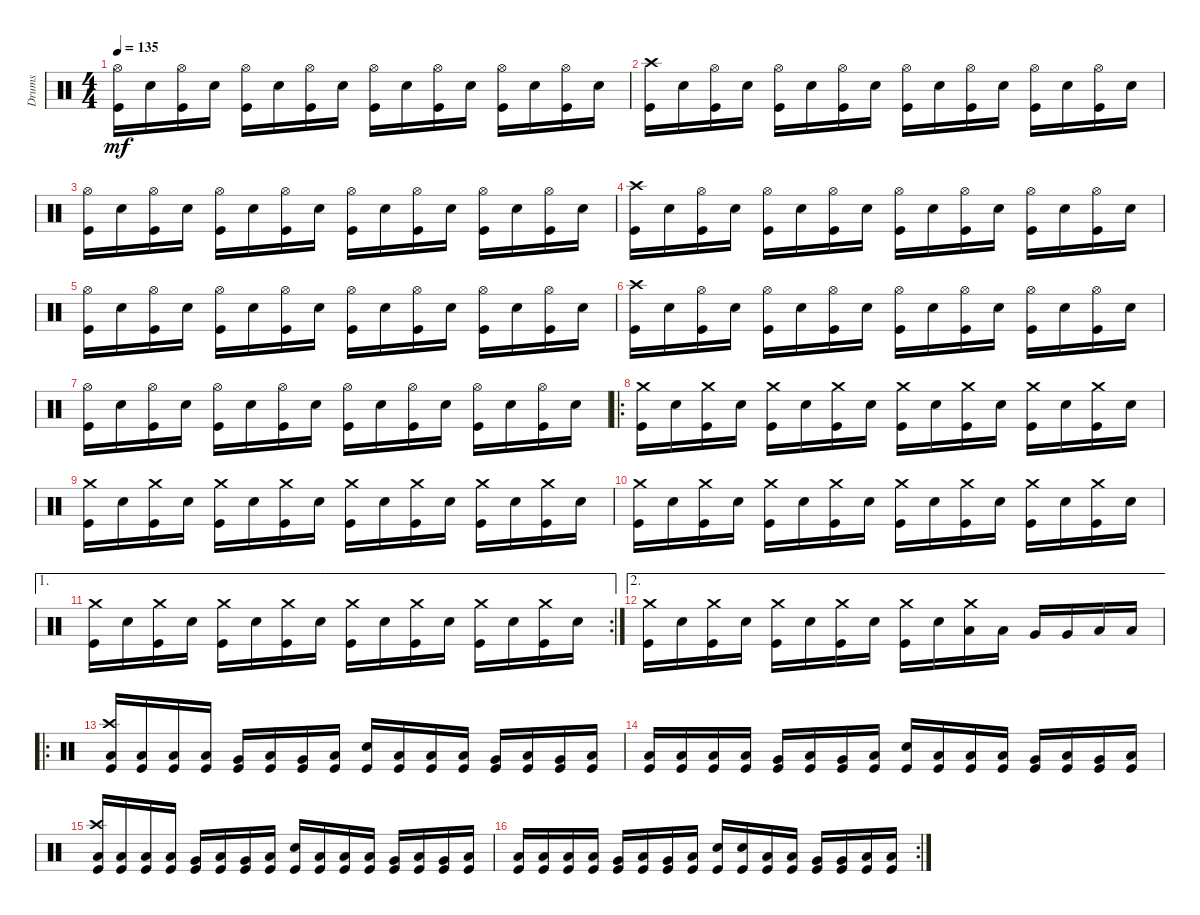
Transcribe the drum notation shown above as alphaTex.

\track ("Drums" "Drums") {instrument percussion}
\staff {score}
\articulation defaults
\ts (4 4)
\tempo 135
\clef neutral
\ks c
("Hi-Hat (open)" "Kick (hit)").16{dy mf} "Snare (hit) 2".16 ("Hi-Hat (open)" "Kick (hit)").16 "Snare (hit) 2".16 ("Hi-Hat (open)" "Kick (hit)").16 "Snare (hit) 2".16 ("Hi-Hat (open)" "Kick (hit)").16 "Snare (hit) 2".16 ("Hi-Hat (open)" "Kick (hit)").16 "Snare (hit) 2".16 ("Hi-Hat (open)" "Kick (hit)").16 "Snare (hit) 2".16 ("Hi-Hat (open)" "Kick (hit)").16 "Snare (hit) 2".16 ("Hi-Hat (open)" "Kick (hit)").16 "Snare (hit) 2".16 |
("Crash high (hit)" "Kick (hit)").16 "Snare (hit) 2".16 ("Hi-Hat (open)" "Kick (hit)").16 "Snare (hit) 2".16 ("Hi-Hat (open)" "Kick (hit)").16 "Snare (hit) 2".16 ("Hi-Hat (open)" "Kick (hit)").16 "Snare (hit) 2".16 ("Hi-Hat (open)" "Kick (hit)").16 "Snare (hit) 2".16 ("Hi-Hat (open)" "Kick (hit)").16 "Snare (hit) 2".16 ("Hi-Hat (open)" "Kick (hit)").16 "Snare (hit) 2".16 ("Hi-Hat (open)" "Kick (hit)").16 "Snare (hit) 2".16 |
("Hi-Hat (open)" "Kick (hit)").16 "Snare (hit) 2".16 ("Hi-Hat (open)" "Kick (hit)").16 "Snare (hit) 2".16 ("Hi-Hat (open)" "Kick (hit)").16 "Snare (hit) 2".16 ("Hi-Hat (open)" "Kick (hit)").16 "Snare (hit) 2".16 ("Hi-Hat (open)" "Kick (hit)").16 "Snare (hit) 2".16 ("Hi-Hat (open)" "Kick (hit)").16 "Snare (hit) 2".16 ("Hi-Hat (open)" "Kick (hit)").16 "Snare (hit) 2".16 ("Hi-Hat (open)" "Kick (hit)").16 "Snare (hit) 2".16 |
("Crash high (hit)" "Kick (hit)").16 "Snare (hit) 2".16 ("Hi-Hat (open)" "Kick (hit)").16 "Snare (hit) 2".16 ("Hi-Hat (open)" "Kick (hit)").16 "Snare (hit) 2".16 ("Hi-Hat (open)" "Kick (hit)").16 "Snare (hit) 2".16 ("Hi-Hat (open)" "Kick (hit)").16 "Snare (hit) 2".16 ("Hi-Hat (open)" "Kick (hit)").16 "Snare (hit) 2".16 ("Hi-Hat (open)" "Kick (hit)").16 "Snare (hit) 2".16 ("Hi-Hat (open)" "Kick (hit)").16 "Snare (hit) 2".16 |
("Hi-Hat (open)" "Kick (hit)").16 "Snare (hit) 2".16 ("Hi-Hat (open)" "Kick (hit)").16 "Snare (hit) 2".16 ("Hi-Hat (open)" "Kick (hit)").16 "Snare (hit) 2".16 ("Hi-Hat (open)" "Kick (hit)").16 "Snare (hit) 2".16 ("Hi-Hat (open)" "Kick (hit)").16 "Snare (hit) 2".16 ("Hi-Hat (open)" "Kick (hit)").16 "Snare (hit) 2".16 ("Hi-Hat (open)" "Kick (hit)").16 "Snare (hit) 2".16 ("Hi-Hat (open)" "Kick (hit)").16 "Snare (hit) 2".16 |
("Crash high (hit)" "Kick (hit)").16 "Snare (hit) 2".16 ("Hi-Hat (open)" "Kick (hit)").16 "Snare (hit) 2".16 ("Hi-Hat (open)" "Kick (hit)").16 "Snare (hit) 2".16 ("Hi-Hat (open)" "Kick (hit)").16 "Snare (hit) 2".16 ("Hi-Hat (open)" "Kick (hit)").16 "Snare (hit) 2".16 ("Hi-Hat (open)" "Kick (hit)").16 "Snare (hit) 2".16 ("Hi-Hat (open)" "Kick (hit)").16 "Snare (hit) 2".16 ("Hi-Hat (open)" "Kick (hit)").16 "Snare (hit) 2".16 |
("Hi-Hat (open)" "Kick (hit)").16 "Snare (hit) 2".16 ("Hi-Hat (open)" "Kick (hit)").16 "Snare (hit) 2".16 ("Hi-Hat (open)" "Kick (hit)").16 "Snare (hit) 2".16 ("Hi-Hat (open)" "Kick (hit)").16 "Snare (hit) 2".16 ("Hi-Hat (open)" "Kick (hit)").16 "Snare (hit) 2".16 ("Hi-Hat (open)" "Kick (hit)").16 "Snare (hit) 2".16 ("Hi-Hat (open)" "Kick (hit)").16 "Snare (hit) 2".16 ("Hi-Hat (open)" "Kick (hit)").16 "Snare (hit) 2".16 |
\ro
("Crash medium (hit)" "Kick (hit)").16 "Snare (hit) 2".16 ("Crash medium (hit)" "Kick (hit)").16 "Snare (hit) 2".16 ("Crash medium (hit)" "Kick (hit)").16 "Snare (hit) 2".16 ("Crash medium (hit)" "Kick (hit)").16 "Snare (hit) 2".16 ("Crash medium (hit)" "Kick (hit)").16 "Snare (hit) 2".16 ("Crash medium (hit)" "Kick (hit)").16 "Snare (hit) 2".16 ("Crash medium (hit)" "Kick (hit)").16 "Snare (hit) 2".16 ("Crash medium (hit)" "Kick (hit)").16 "Snare (hit) 2".16 |
("Crash medium (hit)" "Kick (hit)").16 "Snare (hit) 2".16 ("Crash medium (hit)" "Kick (hit)").16 "Snare (hit) 2".16 ("Crash medium (hit)" "Kick (hit)").16 "Snare (hit) 2".16 ("Crash medium (hit)" "Kick (hit)").16 "Snare (hit) 2".16 ("Crash medium (hit)" "Kick (hit)").16 "Snare (hit) 2".16 ("Crash medium (hit)" "Kick (hit)").16 "Snare (hit) 2".16 ("Crash medium (hit)" "Kick (hit)").16 "Snare (hit) 2".16 ("Crash medium (hit)" "Kick (hit)").16 "Snare (hit) 2".16 |
("Crash medium (hit)" "Kick (hit)").16 "Snare (hit) 2".16 ("Crash medium (hit)" "Kick (hit)").16 "Snare (hit) 2".16 ("Crash medium (hit)" "Kick (hit)").16 "Snare (hit) 2".16 ("Crash medium (hit)" "Kick (hit)").16 "Snare (hit) 2".16 ("Crash medium (hit)" "Kick (hit)").16 "Snare (hit) 2".16 ("Crash medium (hit)" "Kick (hit)").16 "Snare (hit) 2".16 ("Crash medium (hit)" "Kick (hit)").16 "Snare (hit) 2".16 ("Crash medium (hit)" "Kick (hit)").16 "Snare (hit) 2".16 |
\ae 1
\rc 2
("Crash medium (hit)" "Kick (hit)").16 "Snare (hit) 2".16 ("Crash medium (hit)" "Kick (hit)").16 "Snare (hit) 2".16 ("Crash medium (hit)" "Kick (hit)").16 "Snare (hit) 2".16 ("Crash medium (hit)" "Kick (hit)").16 "Snare (hit) 2".16 ("Crash medium (hit)" "Kick (hit)").16 "Snare (hit) 2".16 ("Crash medium (hit)" "Kick (hit)").16 "Snare (hit) 2".16 ("Crash medium (hit)" "Kick (hit)").16 "Snare (hit) 2".16 ("Crash medium (hit)" "Kick (hit)").16 "Snare (hit) 2".16 |
\ae 2
("Crash medium (hit)" "Kick (hit)").16 "Snare (hit) 2".16 ("Crash medium (hit)" "Kick (hit)").16 "Snare (hit) 2".16 ("Crash medium (hit)" "Kick (hit)").16 "Snare (hit) 2".16 ("Crash medium (hit)" "Kick (hit)").16 "Snare (hit) 2".16 ("Crash medium (hit)" "Kick (hit)").16 "Snare (hit) 2".16 ("Crash medium (hit)" "Low Tom (hit)").16 "Low Tom (hit)".16 "Very Low Tom (hit)".16 "Very Low Tom (hit)".16 "Low Floor Tom (hit)".16 "Low Floor Tom (hit)".16 |
\ro
("Crash high (hit)" "Low Floor Tom (hit)" "Kick (hit)").16 ("Low Floor Tom (hit)" "Kick (hit)").16 ("Low Floor Tom (hit)" "Kick (hit)").16 ("Low Floor Tom (hit)" "Kick (hit)").16 ("Very Low Tom (hit)" "Kick (hit)").16 ("Low Floor Tom (hit)" "Kick (hit)").16 ("Very Low Tom (hit)" "Kick (hit)").16 ("Low Floor Tom (hit)" "Kick (hit)").16 ("Snare (hit) 2" "Kick (hit)").16 ("Low Floor Tom (hit)" "Kick (hit)").16 ("Low Floor Tom (hit)" "Kick (hit)").16 ("Low Floor Tom (hit)" "Kick (hit)").16 ("Very Low Tom (hit)" "Kick (hit)").16 ("Low Floor Tom (hit)" "Kick (hit)").16 ("Very Low Tom (hit)" "Kick (hit)").16 ("Low Floor Tom (hit)" "Kick (hit)").16 |
("Low Floor Tom (hit)" "Kick (hit)").16 ("Low Floor Tom (hit)" "Kick (hit)").16 ("Low Floor Tom (hit)" "Kick (hit)").16 ("Low Floor Tom (hit)" "Kick (hit)").16 ("Very Low Tom (hit)" "Kick (hit)").16 ("Low Floor Tom (hit)" "Kick (hit)").16 ("Very Low Tom (hit)" "Kick (hit)").16 ("Low Floor Tom (hit)" "Kick (hit)").16 ("Snare (hit) 2" "Kick (hit)").16 ("Low Floor Tom (hit)" "Kick (hit)").16 ("Low Floor Tom (hit)" "Kick (hit)").16 ("Low Floor Tom (hit)" "Kick (hit)").16 ("Very Low Tom (hit)" "Kick (hit)").16 ("Low Floor Tom (hit)" "Kick (hit)").16 ("Very Low Tom (hit)" "Kick (hit)").16 ("Low Floor Tom (hit)" "Kick (hit)").16 |
("Crash high (hit)" "Low Floor Tom (hit)" "Kick (hit)").16 ("Low Floor Tom (hit)" "Kick (hit)").16 ("Low Floor Tom (hit)" "Kick (hit)").16 ("Low Floor Tom (hit)" "Kick (hit)").16 ("Very Low Tom (hit)" "Kick (hit)").16 ("Low Floor Tom (hit)" "Kick (hit)").16 ("Very Low Tom (hit)" "Kick (hit)").16 ("Low Floor Tom (hit)" "Kick (hit)").16 ("Snare (hit) 2" "Kick (hit)").16 ("Low Floor Tom (hit)" "Kick (hit)").16 ("Low Floor Tom (hit)" "Kick (hit)").16 ("Low Floor Tom (hit)" "Kick (hit)").16 ("Very Low Tom (hit)" "Kick (hit)").16 ("Low Floor Tom (hit)" "Kick (hit)").16 ("Very Low Tom (hit)" "Kick (hit)").16 ("Low Floor Tom (hit)" "Kick (hit)").16 |
\rc 2
("Low Floor Tom (hit)" "Kick (hit)").16 ("Low Floor Tom (hit)" "Kick (hit)").16 ("Low Floor Tom (hit)" "Kick (hit)").16 ("Low Floor Tom (hit)" "Kick (hit)").16 ("Very Low Tom (hit)" "Kick (hit)").16 ("Low Floor Tom (hit)" "Kick (hit)").16 ("Very Low Tom (hit)" "Kick (hit)").16 ("Low Floor Tom (hit)" "Kick (hit)").16 ("Snare (hit) 2" "Kick (hit)").16 ("Snare (hit) 2" "Kick (hit)").16 ("Low Tom (hit)" "Kick (hit)").16 ("Low Tom (hit)" "Kick (hit)").16 ("Very Low Tom (hit)" "Kick (hit)").16 ("Very Low Tom (hit)" "Kick (hit)").16 ("Low Floor Tom (hit)" "Kick (hit)").16 ("Low Floor Tom (hit)" "Kick (hit)").16
